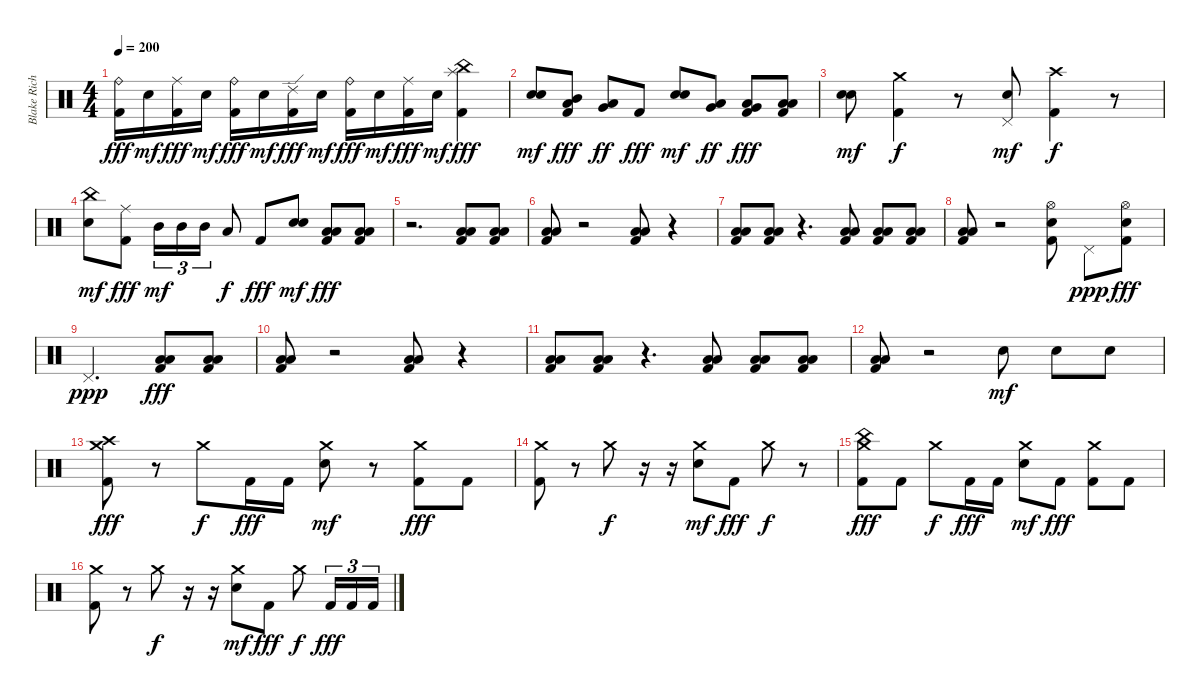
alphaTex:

\track ("Blake Richardson" "Blake Rich") {instrument percussion}
\staff {score}
\articulation defaults
\ts (4 4)
\tempo 200
\clef neutral
\ks c
("Ride (bell)" "Kick (hit) 2").16{dy fff} "Electric Snare (hit)".16{dy mf} ("Ride (middle)" "Kick (hit) 2").16{dy fff} "Electric Snare (hit)".16{dy mf} ("Ride (bell)" "Kick (hit) 2").16{dy fff} "Electric Snare (hit)".16{dy mf} ("Ride (edge) 2" "Kick (hit) 2").16{dy fff} "Electric Snare (hit)".16{dy mf} ("Ride (bell)" "Kick (hit) 2").16{dy fff} "Electric Snare (hit)".16{dy mf} ("Ride (middle)" "Kick (hit) 2").16{dy fff} "Electric Snare (hit)".16{dy mf} ("Splash (hit)" "China (hit)" "Kick (hit) 2").4{dy fff} |
("Electric Snare (hit)" "Electric Snare (hit)").8{bu 480 dy mf} ("Low Tom (hit)" "Mid Tom (hit)" "Kick (hit) 2").8{dy fff} ("Very Low Tom (hit)" "Low Tom (hit)").8{dy ff} "Kick (hit) 2".8{dy fff} ("Electric Snare (hit)" "Electric Snare (hit)").8{bu 480 dy mf} ("Very Low Tom (hit)" "Low Tom (hit)").8{dy ff} ("Low Floor Tom (hit)" "Very Low Tom (hit)" "Kick (hit) 2").8{dy fff} ("Low Floor Tom (hit)" "Low Floor Tom (hit)" "Kick (hit) 2").8 |
("Electric Snare (hit)" "Electric Snare (hit)").8{bu 480 dy mf} ("Crash medium (hit)" "Kick (hit) 2").4{dy f} r.8 ("Pedal Hi-Hat (hit)" "Electric Snare (hit)").8{dy mf} ("Crash high (hit)" "Kick (hit) 2").4{dy f} r.8 |
("China (hit)" "Electric Snare (hit)").8{dy mf} ("Ride (middle)" "Kick (hit) 2").8{dy fff} "Mid Tom (hit)".16{tu (3 2) dy mf} "Mid Tom (hit)".16{tu (3 2)} "Mid Tom (hit)".16{tu (3 2)} "Low Tom (hit)".8{dy f} "Kick (hit) 2".8{dy fff} ("Electric Snare (hit)" "Electric Snare (hit)").8{bu 480 dy mf} ("Low Floor Tom (hit)" "Low Floor Tom (hit)" "Kick (hit) 2").8{dy fff} ("Low Floor Tom (hit)" "Low Floor Tom (hit)" "Kick (hit) 2").8 |
r.2{d} ("Low Floor Tom (hit)" "Low Floor Tom (hit)" "Kick (hit) 2").8 ("Low Floor Tom (hit)" "Low Floor Tom (hit)" "Kick (hit) 2").8 |
("Low Floor Tom (hit)" "Low Floor Tom (hit)" "Kick (hit) 2").8 r.2 ("Low Floor Tom (hit)" "Low Floor Tom (hit)" "Kick (hit) 2").8 r.4 |
("Low Floor Tom (hit)" "Low Floor Tom (hit)" "Kick (hit) 2").8 ("Low Floor Tom (hit)" "Low Floor Tom (hit)" "Kick (hit) 2").8 r.4{d} ("Low Floor Tom (hit)" "Low Floor Tom (hit)" "Kick (hit) 2").8 ("Low Floor Tom (hit)" "Low Floor Tom (hit)" "Kick (hit) 2").8 ("Low Floor Tom (hit)" "Low Floor Tom (hit)" "Kick (hit) 2").8 |
("Low Floor Tom (hit)" "Low Floor Tom (hit)" "Kick (hit) 2").8 r.2 ("Hi-Hat (open)" "Electric Snare (hit)" "Kick (hit) 2").8 "Pedal Hi-Hat (hit)".8{dy ppp} ("Hi-Hat (open)" "Electric Snare (hit)" "Kick (hit) 2").8{dy fff} |
"Pedal Hi-Hat (hit)".2{d dy ppp} ("Low Floor Tom (hit)" "Low Floor Tom (hit)" "Kick (hit) 2").8{dy fff} ("Low Floor Tom (hit)" "Low Floor Tom (hit)" "Kick (hit) 2").8 |
("Low Floor Tom (hit)" "Low Floor Tom (hit)" "Kick (hit) 2").8 r.2 ("Low Floor Tom (hit)" "Low Floor Tom (hit)" "Kick (hit) 2").8 r.4 |
("Low Floor Tom (hit)" "Low Floor Tom (hit)" "Kick (hit) 2").8 ("Low Floor Tom (hit)" "Low Floor Tom (hit)" "Kick (hit) 2").8 r.4{d} ("Low Floor Tom (hit)" "Low Floor Tom (hit)" "Kick (hit) 2").8 ("Low Floor Tom (hit)" "Low Floor Tom (hit)" "Kick (hit) 2").8 ("Low Floor Tom (hit)" "Low Floor Tom (hit)" "Kick (hit) 2").8 |
("Low Floor Tom (hit)" "Low Floor Tom (hit)" "Kick (hit) 2").8 r.2 "Electric Snare (hit)".8{dy mf} "Electric Snare (hit)".8 "Electric Snare (hit)".8 |
("Crash medium (hit)" "Crash high (hit)" "Kick (hit) 2").8{dy fff} r.8 "Crash medium (hit)".8{dy f} "Kick (hit) 2".16{dy fff} "Kick (hit) 2".16 ("Crash medium (hit)" "Electric Snare (hit)").8{dy mf} r.8 ("Crash medium (hit)" "Kick (hit) 2").8{dy fff} "Kick (hit) 2".8 |
("Crash medium (hit)" "Kick (hit) 2").8 r.8 "Crash medium (hit)".8{dy f} r.16 r.16 ("Crash medium (hit)" "Electric Snare (hit)").8{dy mf} "Kick (hit) 2".8{dy fff} "Crash medium (hit)".8{dy f} r.8 |
("China (hit)" "Crash medium (hit)" "Kick (hit) 2").8{dy fff} "Kick (hit) 2".8 "Crash medium (hit)".8{dy f} "Kick (hit) 2".16{dy fff} "Kick (hit) 2".16 ("Crash medium (hit)" "Electric Snare (hit)").8{dy mf} "Kick (hit) 2".8{dy fff} ("Crash medium (hit)" "Kick (hit) 2").8 "Kick (hit) 2".8 |
("Crash medium (hit)" "Kick (hit) 2").8 r.8 "Crash medium (hit)".8{dy f} r.16 r.16 ("Crash medium (hit)" "Electric Snare (hit)").8{dy mf} "Kick (hit) 2".8{dy fff} "Crash medium (hit)".8{dy f} "Kick (hit) 2".16{tu (3 2) dy fff} "Kick (hit) 2".16{tu (3 2)} "Kick (hit) 2".16{tu (3 2)}
